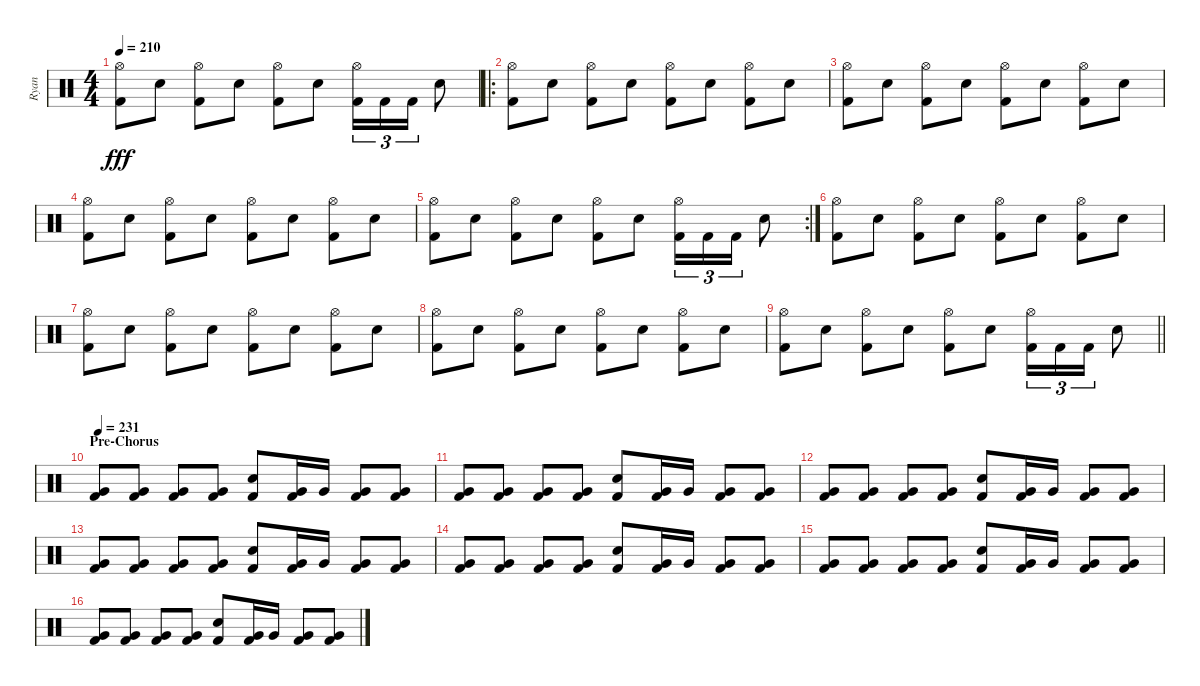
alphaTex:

\track ("Ryan" "Ryan") {instrument percussion}
\staff {score}
\articulation defaults
\ts (4 4)
\tempo 210
\clef neutral
\ks c
("Hi-Hat (open)" "Kick (hit) 2").8{dy fff} "Electric Snare (hit)".8 ("Hi-Hat (open)" "Kick (hit) 2").8 "Electric Snare (hit)".8 ("Hi-Hat (open)" "Kick (hit) 2").8 "Electric Snare (hit)".8 ("Hi-Hat (open)" "Kick (hit) 2").16{tu (3 2)} "Kick (hit) 2".16{tu (3 2)} "Kick (hit) 2".16{tu (3 2)} "Electric Snare (hit)".8 |
\ro
("Hi-Hat (open)" "Kick (hit) 2").8 "Electric Snare (hit)".8 ("Hi-Hat (open)" "Kick (hit) 2").8 "Electric Snare (hit)".8 ("Hi-Hat (open)" "Kick (hit) 2").8 "Electric Snare (hit)".8 ("Hi-Hat (open)" "Kick (hit) 2").8 "Electric Snare (hit)".8 |
("Hi-Hat (open)" "Kick (hit) 2").8 "Electric Snare (hit)".8 ("Hi-Hat (open)" "Kick (hit) 2").8 "Electric Snare (hit)".8 ("Hi-Hat (open)" "Kick (hit) 2").8 "Electric Snare (hit)".8 ("Hi-Hat (open)" "Kick (hit) 2").8 "Electric Snare (hit)".8 |
("Hi-Hat (open)" "Kick (hit) 2").8 "Electric Snare (hit)".8 ("Hi-Hat (open)" "Kick (hit) 2").8 "Electric Snare (hit)".8 ("Hi-Hat (open)" "Kick (hit) 2").8 "Electric Snare (hit)".8 ("Hi-Hat (open)" "Kick (hit) 2").8 "Electric Snare (hit)".8 |
\rc 2
("Hi-Hat (open)" "Kick (hit) 2").8 "Electric Snare (hit)".8 ("Hi-Hat (open)" "Kick (hit) 2").8 "Electric Snare (hit)".8 ("Hi-Hat (open)" "Kick (hit) 2").8 "Electric Snare (hit)".8 ("Hi-Hat (open)" "Kick (hit) 2").16{tu (3 2)} "Kick (hit) 2".16{tu (3 2)} "Kick (hit) 2".16{tu (3 2)} "Electric Snare (hit)".8 |
("Hi-Hat (open)" "Kick (hit) 2").8 "Electric Snare (hit)".8 ("Hi-Hat (open)" "Kick (hit) 2").8 "Electric Snare (hit)".8 ("Hi-Hat (open)" "Kick (hit) 2").8 "Electric Snare (hit)".8 ("Hi-Hat (open)" "Kick (hit) 2").8 "Electric Snare (hit)".8 |
("Hi-Hat (open)" "Kick (hit) 2").8 "Electric Snare (hit)".8 ("Hi-Hat (open)" "Kick (hit) 2").8 "Electric Snare (hit)".8 ("Hi-Hat (open)" "Kick (hit) 2").8 "Electric Snare (hit)".8 ("Hi-Hat (open)" "Kick (hit) 2").8 "Electric Snare (hit)".8 |
("Hi-Hat (open)" "Kick (hit) 2").8 "Electric Snare (hit)".8 ("Hi-Hat (open)" "Kick (hit) 2").8 "Electric Snare (hit)".8 ("Hi-Hat (open)" "Kick (hit) 2").8 "Electric Snare (hit)".8 ("Hi-Hat (open)" "Kick (hit) 2").8 "Electric Snare (hit)".8 |
\barLineRight lightlight
("Hi-Hat (open)" "Kick (hit) 2").8 "Electric Snare (hit)".8 ("Hi-Hat (open)" "Kick (hit) 2").8 "Electric Snare (hit)".8 ("Hi-Hat (open)" "Kick (hit) 2").8 "Electric Snare (hit)".8 ("Hi-Hat (open)" "Kick (hit) 2").16{tu (3 2)} "Kick (hit) 2".16{tu (3 2)} "Kick (hit) 2".16{tu (3 2)} "Electric Snare (hit)".8 |
\section ("" "Pre-Chorus")
\tempo 231
("Very Low Tom (hit)" "Kick (hit) 2").8 ("Very Low Tom (hit)" "Kick (hit) 2").8 ("Very Low Tom (hit)" "Kick (hit) 2").8 ("Very Low Tom (hit)" "Kick (hit) 2").8 ("Electric Snare (hit)" "Kick (hit) 2").8 ("Very Low Tom (hit)" "Kick (hit) 2").16 "Very Low Tom (hit)".16 ("Very Low Tom (hit)" "Kick (hit) 2").8 ("Very Low Tom (hit)" "Kick (hit) 2").8 |
("Very Low Tom (hit)" "Kick (hit) 2").8 ("Very Low Tom (hit)" "Kick (hit) 2").8 ("Very Low Tom (hit)" "Kick (hit) 2").8 ("Very Low Tom (hit)" "Kick (hit) 2").8 ("Electric Snare (hit)" "Kick (hit) 2").8 ("Very Low Tom (hit)" "Kick (hit) 2").16 "Very Low Tom (hit)".16 ("Very Low Tom (hit)" "Kick (hit) 2").8 ("Very Low Tom (hit)" "Kick (hit) 2").8 |
("Very Low Tom (hit)" "Kick (hit) 2").8 ("Very Low Tom (hit)" "Kick (hit) 2").8 ("Very Low Tom (hit)" "Kick (hit) 2").8 ("Very Low Tom (hit)" "Kick (hit) 2").8 ("Electric Snare (hit)" "Kick (hit) 2").8 ("Very Low Tom (hit)" "Kick (hit) 2").16 "Very Low Tom (hit)".16 ("Very Low Tom (hit)" "Kick (hit) 2").8 ("Very Low Tom (hit)" "Kick (hit) 2").8 |
("Very Low Tom (hit)" "Kick (hit) 2").8 ("Very Low Tom (hit)" "Kick (hit) 2").8 ("Very Low Tom (hit)" "Kick (hit) 2").8 ("Very Low Tom (hit)" "Kick (hit) 2").8 ("Electric Snare (hit)" "Kick (hit) 2").8 ("Very Low Tom (hit)" "Kick (hit) 2").16 "Very Low Tom (hit)".16 ("Very Low Tom (hit)" "Kick (hit) 2").8 ("Very Low Tom (hit)" "Kick (hit) 2").8 |
("Very Low Tom (hit)" "Kick (hit) 2").8 ("Very Low Tom (hit)" "Kick (hit) 2").8 ("Very Low Tom (hit)" "Kick (hit) 2").8 ("Very Low Tom (hit)" "Kick (hit) 2").8 ("Electric Snare (hit)" "Kick (hit) 2").8 ("Very Low Tom (hit)" "Kick (hit) 2").16 "Very Low Tom (hit)".16 ("Very Low Tom (hit)" "Kick (hit) 2").8 ("Very Low Tom (hit)" "Kick (hit) 2").8 |
("Very Low Tom (hit)" "Kick (hit) 2").8 ("Very Low Tom (hit)" "Kick (hit) 2").8 ("Very Low Tom (hit)" "Kick (hit) 2").8 ("Very Low Tom (hit)" "Kick (hit) 2").8 ("Electric Snare (hit)" "Kick (hit) 2").8 ("Very Low Tom (hit)" "Kick (hit) 2").16 "Very Low Tom (hit)".16 ("Very Low Tom (hit)" "Kick (hit) 2").8 ("Very Low Tom (hit)" "Kick (hit) 2").8 |
("Very Low Tom (hit)" "Kick (hit) 2").8 ("Very Low Tom (hit)" "Kick (hit) 2").8 ("Very Low Tom (hit)" "Kick (hit) 2").8 ("Very Low Tom (hit)" "Kick (hit) 2").8 ("Electric Snare (hit)" "Kick (hit) 2").8 ("Very Low Tom (hit)" "Kick (hit) 2").16 "Very Low Tom (hit)".16 ("Very Low Tom (hit)" "Kick (hit) 2").8 ("Very Low Tom (hit)" "Kick (hit) 2").8
